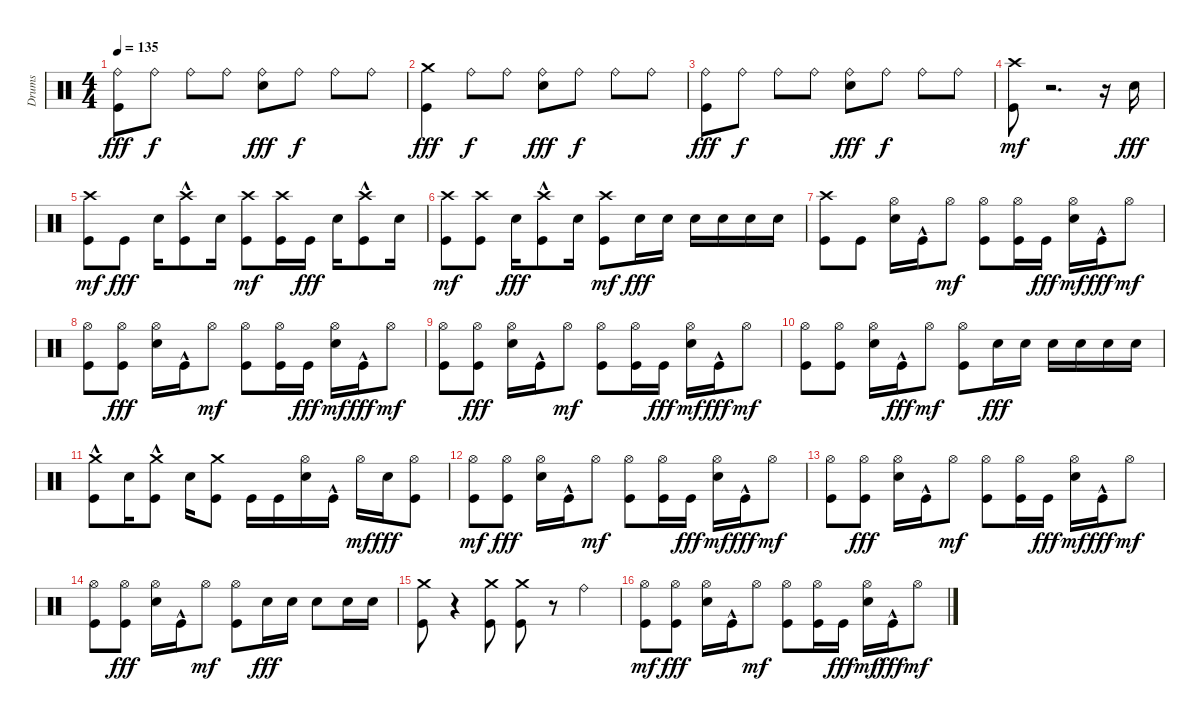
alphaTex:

\track ("Drums" "Drums") {instrument percussion}
\staff {score}
\articulation defaults
\ts (4 4)
\tempo 135
\clef neutral
\ks c
("Kick (hit)" "Ride (bell)").8{dy fff} "Ride (bell)".8{dy f} "Ride (bell)".8 "Ride (bell)".8 ("Electric Snare (hit)" "Ride (bell)").8{dy fff} "Ride (bell)".8{dy f} "Ride (bell)".8 "Ride (bell)".8 |
("Kick (hit)" "Crash medium (hit)").4{dy fff} "Ride (bell)".8{dy f} "Ride (bell)".8 ("Electric Snare (hit)" "Ride (bell)").8{dy fff} "Ride (bell)".8{dy f} "Ride (bell)".8 "Ride (bell)".8 |
("Kick (hit)" "Ride (bell)").8{dy fff} "Ride (bell)".8{dy f} "Ride (bell)".8 "Ride (bell)".8 ("Electric Snare (hit)" "Ride (bell)").8{dy fff} "Ride (bell)".8{dy f} "Ride (bell)".8 "Ride (bell)".8 |
("Kick (hit)" "Crash high (hit)").8{dy mf} r.2{d} r.16 "Electric Snare (hit)".16{dy fff} |
("Kick (hit)" "Crash high (hit)").8{dy mf} "Kick (hit)".8{dy fff} "Electric Snare (hit)".16 ("Crash high (hit)" "Kick (hit)"{hac}).8 "Electric Snare (hit)".16 ("Kick (hit)" "Crash high (hit)").8{dy mf} ("Kick (hit)" "Crash high (hit)").16 "Kick (hit)".16{dy fff} "Electric Snare (hit)".16 ("Crash high (hit)" "Kick (hit)"{hac}).8 "Electric Snare (hit)".16 |
("Kick (hit)" "Crash high (hit)").8{dy mf} ("Kick (hit)" "Crash high (hit)").8 "Electric Snare (hit)".16{dy fff} ("Crash high (hit)" "Kick (hit)"{hac}).8 "Electric Snare (hit)".16 ("Kick (hit)" "Crash high (hit)").8{dy mf} "Electric Snare (hit)".16{dy fff} "Electric Snare (hit)".16 "Electric Snare (hit)".16 "Electric Snare (hit)".16 "Electric Snare (hit)".16 "Electric Snare (hit)".16 |
("Kick (hit)" "Crash high (hit)").8 "Kick (hit)".8 ("Hi-Hat (open)" "Electric Snare (hit)").16 "Kick (hit)"{hac}.16 "Hi-Hat (open)".8{dy mf} ("Kick (hit)" "Hi-Hat (open)").8 ("Kick (hit)" "Hi-Hat (open)").16 "Kick (hit)".16{dy fff} ("Electric Snare (hit)" "Hi-Hat (open)").16{dy mf} "Kick (hit)"{hac}.16{dy fff} "Hi-Hat (open)".8{dy mf} |
("Kick (hit)" "Hi-Hat (open)").8 ("Hi-Hat (open)" "Kick (hit)").8{dy fff} ("Hi-Hat (open)" "Electric Snare (hit)").16 "Kick (hit)"{hac}.16 "Hi-Hat (open)".8{dy mf} ("Kick (hit)" "Hi-Hat (open)").8 ("Kick (hit)" "Hi-Hat (open)").16 "Kick (hit)".16{dy fff} ("Electric Snare (hit)" "Hi-Hat (open)").16{dy mf} "Kick (hit)"{hac}.16{dy fff} "Hi-Hat (open)".8{dy mf} |
("Kick (hit)" "Hi-Hat (open)").8 ("Hi-Hat (open)" "Kick (hit)").8{dy fff} ("Hi-Hat (open)" "Electric Snare (hit)").16 "Kick (hit)"{hac}.16 "Hi-Hat (open)".8{dy mf} ("Kick (hit)" "Hi-Hat (open)").8 ("Kick (hit)" "Hi-Hat (open)").16 "Kick (hit)".16{dy fff} ("Electric Snare (hit)" "Hi-Hat (open)").16{dy mf} "Kick (hit)"{hac}.16{dy fff} "Hi-Hat (open)".8{dy mf} |
("Kick (hit)" "Hi-Hat (open)").8 ("Kick (hit)" "Hi-Hat (open)").8 ("Electric Snare (hit)" "Hi-Hat (open)").16 "Kick (hit)"{hac}.16{dy fff} "Hi-Hat (open)".8{dy mf} ("Kick (hit)" "Hi-Hat (open)").8 "Electric Snare (hit)".16{dy fff} "Electric Snare (hit)".16 "Electric Snare (hit)".16 "Electric Snare (hit)".16 "Electric Snare (hit)".16 "Electric Snare (hit)".16 |
("Crash medium (hit)" "Kick (hit)"{hac}).8 "Electric Snare (hit)".16 ("Crash medium (hit)"{hac} "Kick (hit)"{hac}).8 "Electric Snare (hit)".16 ("Crash medium (hit)" "Kick (hit)").8 "Kick (hit)".16 "Kick (hit)".16 ("Hi-Hat (open)" "Electric Snare (hit)").16 "Kick (hit)"{hac}.16 "Hi-Hat (open)".16{dy mf} "Electric Snare (hit)".16{dy fff} ("Hi-Hat (open)" "Kick (hit)").8 |
("Kick (hit)" "Hi-Hat (open)").8{dy mf} ("Hi-Hat (open)" "Kick (hit)").8{dy fff} ("Hi-Hat (open)" "Electric Snare (hit)").16 "Kick (hit)"{hac}.16 "Hi-Hat (open)".8{dy mf} ("Kick (hit)" "Hi-Hat (open)").8 ("Kick (hit)" "Hi-Hat (open)").16 "Kick (hit)".16{dy fff} ("Electric Snare (hit)" "Hi-Hat (open)").16{dy mf} "Kick (hit)"{hac}.16{dy fff} "Hi-Hat (open)".8{dy mf} |
("Kick (hit)" "Hi-Hat (open)").8 ("Hi-Hat (open)" "Kick (hit)").8{dy fff} ("Hi-Hat (open)" "Electric Snare (hit)").16 "Kick (hit)"{hac}.16 "Hi-Hat (open)".8{dy mf} ("Kick (hit)" "Hi-Hat (open)").8 ("Kick (hit)" "Hi-Hat (open)").16 "Kick (hit)".16{dy fff} ("Electric Snare (hit)" "Hi-Hat (open)").16{dy mf} "Kick (hit)"{hac}.16{dy fff} "Hi-Hat (open)".8{dy mf} |
("Kick (hit)" "Hi-Hat (open)").8 ("Hi-Hat (open)" "Kick (hit)").8{dy fff} ("Hi-Hat (open)" "Electric Snare (hit)").16 "Kick (hit)"{hac}.16 "Hi-Hat (open)".8{dy mf} ("Kick (hit)" "Hi-Hat (open)").8 "Electric Snare (hit)".16{dy fff} "Electric Snare (hit)".16 "Electric Snare (hit)".8 "Electric Snare (hit)".16 "Electric Snare (hit)".16 |
("Kick (hit)" "Crash medium (hit)").8 r.4 ("Crash medium (hit)" "Kick (hit)").8 ("Kick (hit)" "Crash medium (hit)").8 r.8 "Ride (bell)".4 |
("Kick (hit)" "Hi-Hat (open)").8{dy mf} ("Hi-Hat (open)" "Kick (hit)").8{dy fff} ("Hi-Hat (open)" "Electric Snare (hit)").16 "Kick (hit)"{hac}.16 "Hi-Hat (open)".8{dy mf} ("Kick (hit)" "Hi-Hat (open)").8 ("Kick (hit)" "Hi-Hat (open)").16 "Kick (hit)".16{dy fff} ("Electric Snare (hit)" "Hi-Hat (open)").16{dy mf} "Kick (hit)"{hac}.16{dy fff} "Hi-Hat (open)".8{dy mf}
